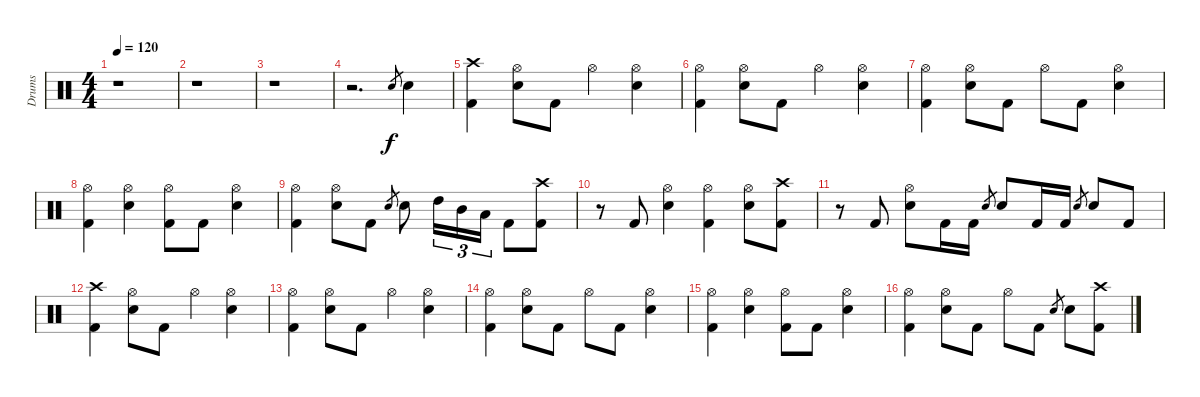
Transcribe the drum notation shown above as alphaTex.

\track ("Drums" "Drums") {instrument percussion}
\staff {score}
\articulation defaults
\ts (4 4)
\tempo 120
\clef neutral
\ks c
r.1{dy f} |
r.1 |
r.1 |
r.2{d} "Electric Snare (hit)".8{gr} "Electric Snare (hit)".4 |
("Crash high (hit)" "Kick (hit) 2").4 ("Hi-Hat (open)" "Electric Snare (hit)").8 "Kick (hit) 2".8 "Hi-Hat (open)".4 ("Hi-Hat (open)" "Electric Snare (hit)").4 |
("Hi-Hat (open)" "Kick (hit) 2").4 ("Hi-Hat (open)" "Electric Snare (hit)").8 "Kick (hit) 2".8 "Hi-Hat (open)".4 ("Hi-Hat (open)" "Electric Snare (hit)").4 |
("Hi-Hat (open)" "Kick (hit) 2").4 ("Hi-Hat (open)" "Electric Snare (hit)").8 "Kick (hit) 2".8 "Hi-Hat (open)".8 "Kick (hit) 2".8 ("Hi-Hat (open)" "Electric Snare (hit)").4 |
("Hi-Hat (open)" "Kick (hit) 2").4 ("Hi-Hat (open)" "Electric Snare (hit)").4 ("Hi-Hat (open)" "Kick (hit) 2").8 "Kick (hit) 2".8 ("Hi-Hat (open)" "Electric Snare (hit)").4 |
("Hi-Hat (open)" "Kick (hit) 2").4 ("Hi-Hat (open)" "Electric Snare (hit)").8 "Kick (hit) 2".8 "Electric Snare (hit)".8{gr} "Electric Snare (hit)".8 "High Tom (hit)".16{tu (3 2)} "Mid Tom (hit)".16{tu (3 2)} "Low Tom (hit)".16{tu (3 2)} "Kick (hit) 2".8 ("Crash high (hit)" "Kick (hit) 2").8 |
r.8 "Kick (hit) 2".8 ("Hi-Hat (open)" "Electric Snare (hit)").4 ("Hi-Hat (open)" "Kick (hit) 2").4 ("Hi-Hat (open)" "Electric Snare (hit)").8 ("Crash high (hit)" "Kick (hit) 2").8 |
r.8 "Kick (hit) 2".8 ("Hi-Hat (open)" "Electric Snare (hit)").8 "Kick (hit) 2".16 "Kick (hit) 2".16 "Electric Snare (hit)".8{gr} "Electric Snare (hit)".8 "Kick (hit) 2".16 "Kick (hit) 2".16 "Electric Snare (hit)".8{gr} "Electric Snare (hit)".8 "Kick (hit) 2".8 |
("Crash high (hit)" "Kick (hit) 2").4 ("Hi-Hat (open)" "Electric Snare (hit)").8 "Kick (hit) 2".8 "Hi-Hat (open)".4 ("Hi-Hat (open)" "Electric Snare (hit)").4 |
("Hi-Hat (open)" "Kick (hit) 2").4 ("Hi-Hat (open)" "Electric Snare (hit)").8 "Kick (hit) 2".8 "Hi-Hat (open)".4 ("Hi-Hat (open)" "Electric Snare (hit)").4 |
("Hi-Hat (open)" "Kick (hit) 2").4 ("Hi-Hat (open)" "Electric Snare (hit)").8 "Kick (hit) 2".8 "Hi-Hat (open)".8 "Kick (hit) 2".8 ("Hi-Hat (open)" "Electric Snare (hit)").4 |
("Hi-Hat (open)" "Kick (hit) 2").4 ("Hi-Hat (open)" "Electric Snare (hit)").4 ("Hi-Hat (open)" "Kick (hit) 2").8 "Kick (hit) 2".8 ("Hi-Hat (open)" "Electric Snare (hit)").4 |
("Hi-Hat (open)" "Kick (hit) 2").4 ("Hi-Hat (open)" "Electric Snare (hit)").8 "Kick (hit) 2".8 "Hi-Hat (open)".8 "Kick (hit) 2".8 "Electric Snare (hit)".8{gr} "Electric Snare (hit)".8 ("Crash high (hit)" "Kick (hit) 2").8
